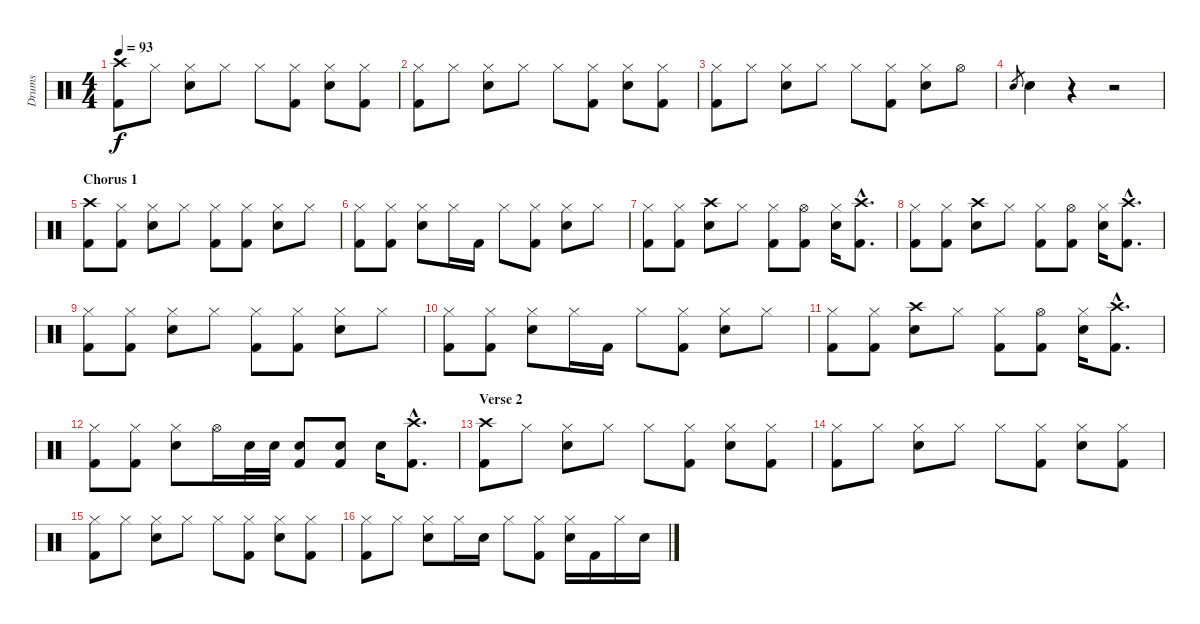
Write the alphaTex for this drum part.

\track ("Drums" "Drums") {instrument percussion}
\staff {score}
\articulation defaults
\ts (4 4)
\tempo 93
\clef neutral
\ks c
("Crash high (hit)" "Kick (hit) 2").8{dy f} "Hi-Hat (closed)".8 ("Hi-Hat (closed)" "Electric Snare (hit)").8 "Hi-Hat (closed)".8 "Hi-Hat (closed)".8 ("Hi-Hat (closed)" "Kick (hit) 2").8 ("Hi-Hat (closed)" "Electric Snare (hit)").8 ("Hi-Hat (closed)" "Kick (hit) 2").8 |
("Hi-Hat (closed)" "Kick (hit) 2").8 "Hi-Hat (closed)".8 ("Hi-Hat (closed)" "Electric Snare (hit)").8 "Hi-Hat (closed)".8 "Hi-Hat (closed)".8 ("Hi-Hat (closed)" "Kick (hit) 2").8 ("Hi-Hat (closed)" "Electric Snare (hit)").8 ("Hi-Hat (closed)" "Kick (hit) 2").8 |
("Hi-Hat (closed)" "Kick (hit) 2").8 "Hi-Hat (closed)".8 ("Hi-Hat (closed)" "Electric Snare (hit)").8 "Hi-Hat (closed)".8 "Hi-Hat (closed)".8 ("Hi-Hat (closed)" "Kick (hit) 2").8 ("Hi-Hat (closed)" "Electric Snare (hit)").8 "Hi-Hat (open)".8 |
"Electric Snare (hit)".8{gr} "Electric Snare (hit)".4 r.4 r.2 |
\section ("" "Chorus 1")
("Crash high (hit)" "Kick (hit) 2").8 ("Hi-Hat (closed)" "Kick (hit) 2").8 ("Hi-Hat (closed)" "Electric Snare (hit)").8 "Hi-Hat (closed)".8 ("Hi-Hat (closed)" "Kick (hit) 2").8 ("Hi-Hat (closed)" "Kick (hit) 2").8 ("Hi-Hat (closed)" "Electric Snare (hit)").8 "Hi-Hat (closed)".8 |
("Hi-Hat (closed)" "Kick (hit) 2").8 ("Hi-Hat (closed)" "Kick (hit) 2").8 ("Hi-Hat (closed)" "Electric Snare (hit)").8 "Hi-Hat (closed)".16 "Kick (hit) 2".16 "Hi-Hat (closed)".8 ("Hi-Hat (closed)" "Kick (hit) 2").8 ("Hi-Hat (closed)" "Electric Snare (hit)").8 "Hi-Hat (closed)".8 |
("Hi-Hat (closed)" "Kick (hit) 2").8 ("Hi-Hat (closed)" "Kick (hit) 2").8 ("Crash high (hit)" "Electric Snare (hit)").8 "Hi-Hat (closed)".8 ("Hi-Hat (closed)" "Kick (hit) 2").8 ("Hi-Hat (open)" "Kick (hit) 2").8 ("Hi-Hat (closed)" "Electric Snare (hit)").16 ("Crash high (hit)"{hac} "Kick (hit) 2"{hac}).8{d} |
("Hi-Hat (closed)" "Kick (hit) 2").8 ("Hi-Hat (closed)" "Kick (hit) 2").8 ("Crash high (hit)" "Electric Snare (hit)").8 "Hi-Hat (closed)".8 ("Hi-Hat (closed)" "Kick (hit) 2").8 ("Hi-Hat (open)" "Kick (hit) 2").8 ("Hi-Hat (closed)" "Electric Snare (hit)").16 ("Crash high (hit)"{hac} "Kick (hit) 2"{hac}).8{d} |
("Hi-Hat (closed)" "Kick (hit) 2").8 ("Hi-Hat (closed)" "Kick (hit) 2").8 ("Hi-Hat (closed)" "Electric Snare (hit)").8 "Hi-Hat (closed)".8 ("Hi-Hat (closed)" "Kick (hit) 2").8 ("Hi-Hat (closed)" "Kick (hit) 2").8 ("Hi-Hat (closed)" "Electric Snare (hit)").8 "Hi-Hat (closed)".8 |
("Hi-Hat (closed)" "Kick (hit) 2").8 ("Hi-Hat (closed)" "Kick (hit) 2").8 ("Hi-Hat (closed)" "Electric Snare (hit)").8 "Hi-Hat (closed)".16 "Kick (hit) 2".16 "Hi-Hat (closed)".8 ("Hi-Hat (closed)" "Kick (hit) 2").8 ("Hi-Hat (closed)" "Electric Snare (hit)").8 "Hi-Hat (closed)".8 |
("Hi-Hat (closed)" "Kick (hit) 2").8 ("Hi-Hat (closed)" "Kick (hit) 2").8 ("Crash high (hit)" "Electric Snare (hit)").8 "Hi-Hat (closed)".8 ("Hi-Hat (closed)" "Kick (hit) 2").8 ("Hi-Hat (open)" "Kick (hit) 2").8 ("Hi-Hat (closed)" "Electric Snare (hit)").16 ("Crash high (hit)"{hac} "Kick (hit) 2"{hac}).8{d} |
("Hi-Hat (closed)" "Kick (hit) 2").8 ("Hi-Hat (closed)" "Kick (hit) 2").8 ("Hi-Hat (closed)" "Electric Snare (hit)").8 "Hi-Hat (open)".16 "Electric Snare (hit)".32 "Electric Snare (hit)".32 ("Electric Snare (hit)" "Kick (hit) 2").8 ("Electric Snare (hit)" "Kick (hit) 2").8 "Electric Snare (hit)".16 ("Crash high (hit)"{hac} "Kick (hit) 2"{hac}).8{d} |
\section ("" "Verse 2")
("Crash high (hit)" "Kick (hit) 2").8 "Hi-Hat (closed)".8 ("Hi-Hat (closed)" "Electric Snare (hit)").8 "Hi-Hat (closed)".8 "Hi-Hat (closed)".8 ("Hi-Hat (closed)" "Kick (hit) 2").8 ("Hi-Hat (closed)" "Electric Snare (hit)").8 ("Hi-Hat (closed)" "Kick (hit) 2").8 |
("Hi-Hat (closed)" "Kick (hit) 2").8 "Hi-Hat (closed)".8 ("Hi-Hat (closed)" "Electric Snare (hit)").8 "Hi-Hat (closed)".8 "Hi-Hat (closed)".8 ("Hi-Hat (closed)" "Kick (hit) 2").8 ("Hi-Hat (closed)" "Electric Snare (hit)").8 ("Hi-Hat (closed)" "Kick (hit) 2").8 |
("Hi-Hat (closed)" "Kick (hit) 2").8 "Hi-Hat (closed)".8 ("Hi-Hat (closed)" "Electric Snare (hit)").8 "Hi-Hat (closed)".8 "Hi-Hat (closed)".8 ("Hi-Hat (closed)" "Kick (hit) 2").8 ("Hi-Hat (closed)" "Electric Snare (hit)").8 ("Hi-Hat (closed)" "Kick (hit) 2").8 |
("Hi-Hat (closed)" "Kick (hit) 2").8 "Hi-Hat (closed)".8 ("Hi-Hat (closed)" "Electric Snare (hit)").8 "Hi-Hat (closed)".16 "Electric Snare (hit)".16 "Hi-Hat (closed)".8 ("Hi-Hat (closed)" "Kick (hit) 2").8 ("Hi-Hat (closed)" "Electric Snare (hit)").16 "Kick (hit) 2".16 "Hi-Hat (closed)".16 "Electric Snare (hit)".16
